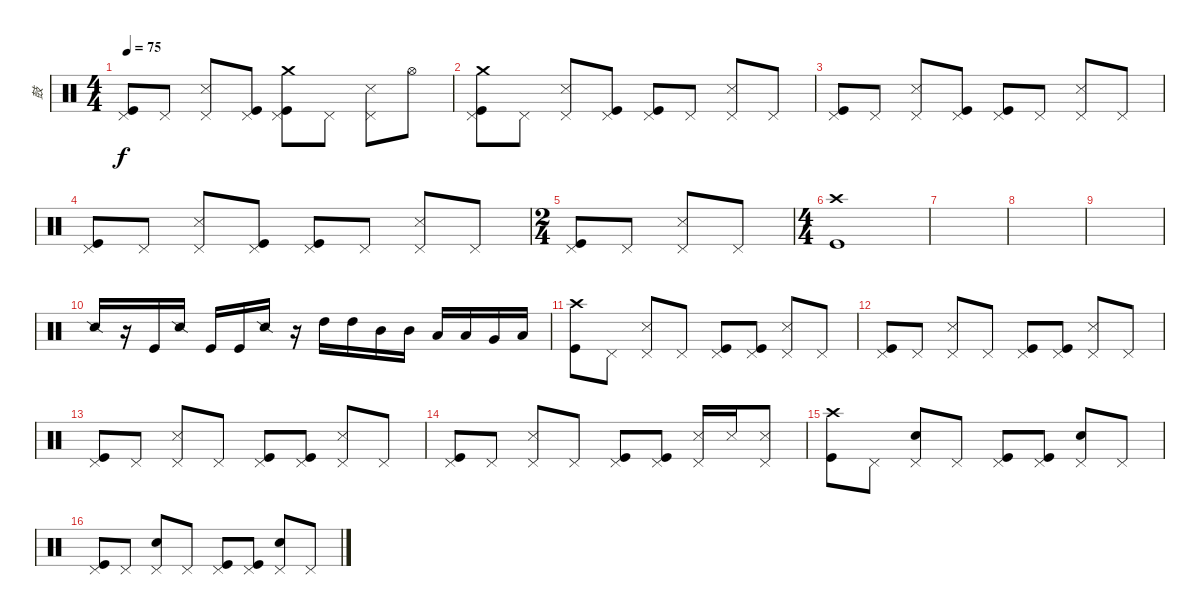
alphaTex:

\track ("鼓" "鼓") {instrument percussion}
\staff {score}
\articulation defaults
\ts (4 4)
\tempo 75
\clef neutral
\ks c
("Kick (hit)" "Pedal Hi-Hat (hit)").8{dy f} "Pedal Hi-Hat (hit)".8 ("Snare (side stick) 3" "Pedal Hi-Hat (hit)").8 ("Kick (hit)" "Pedal Hi-Hat (hit)").8 ("Kick (hit)" "Pedal Hi-Hat (hit)" "Crash medium (hit)").8 "Pedal Hi-Hat (hit)".8 ("Snare (side stick) 3" "Pedal Hi-Hat (hit)").8 "Hi-Hat (open)".8 |
("Kick (hit)" "Pedal Hi-Hat (hit)" "Crash medium (hit)").8 "Pedal Hi-Hat (hit)".8 ("Snare (side stick) 3" "Pedal Hi-Hat (hit)").8 ("Kick (hit)" "Pedal Hi-Hat (hit)").8 ("Kick (hit)" "Pedal Hi-Hat (hit)").8 "Pedal Hi-Hat (hit)".8 ("Snare (side stick) 3" "Pedal Hi-Hat (hit)").8 "Pedal Hi-Hat (hit)".8 |
("Kick (hit)" "Pedal Hi-Hat (hit)").8 "Pedal Hi-Hat (hit)".8 ("Snare (side stick) 3" "Pedal Hi-Hat (hit)").8 ("Kick (hit)" "Pedal Hi-Hat (hit)").8 ("Kick (hit)" "Pedal Hi-Hat (hit)").8 "Pedal Hi-Hat (hit)".8 ("Snare (side stick) 3" "Pedal Hi-Hat (hit)").8 "Pedal Hi-Hat (hit)".8 |
("Kick (hit)" "Pedal Hi-Hat (hit)").8 "Pedal Hi-Hat (hit)".8 ("Snare (side stick) 3" "Pedal Hi-Hat (hit)").8 ("Kick (hit)" "Pedal Hi-Hat (hit)").8 ("Kick (hit)" "Pedal Hi-Hat (hit)").8 "Pedal Hi-Hat (hit)".8 ("Snare (side stick) 3" "Pedal Hi-Hat (hit)").8 "Pedal Hi-Hat (hit)".8 |
\ts (2 4)
("Kick (hit)" "Pedal Hi-Hat (hit)").8 "Pedal Hi-Hat (hit)".8 ("Snare (side stick) 3" "Pedal Hi-Hat (hit)").8 "Pedal Hi-Hat (hit)".8 |
\ts (4 4)
("Kick (hit)" "Crash high (hit)").1 |
|
|
|
"Snare (side stick) 2".16 r.16 "Kick (hit)".16 "Snare (side stick) 2".16 "Kick (hit)".16 "Kick (hit)".16 "Snare (side stick) 2".16 r.16 "High Tom (hit)".16 "High Tom (hit)".16 "Mid Tom (hit)".16 "Mid Tom (hit)".16 "Low Tom (hit)".16 "Low Tom (hit)".16 "Very Low Tom (hit)".16 "Low Floor Tom (hit)".16 |
("Kick (hit)" "Crash high (hit)").8 "Pedal Hi-Hat (hit)".8 ("Snare (side stick) 3" "Pedal Hi-Hat (hit)").8 "Pedal Hi-Hat (hit)".8 ("Kick (hit)" "Pedal Hi-Hat (hit)").8 ("Kick (hit)" "Pedal Hi-Hat (hit)").8 ("Snare (side stick) 3" "Pedal Hi-Hat (hit)").8 "Pedal Hi-Hat (hit)".8 |
("Kick (hit)" "Pedal Hi-Hat (hit)").8 "Pedal Hi-Hat (hit)".8 ("Snare (side stick) 3" "Pedal Hi-Hat (hit)").8 "Pedal Hi-Hat (hit)".8 ("Kick (hit)" "Pedal Hi-Hat (hit)").8 ("Kick (hit)" "Pedal Hi-Hat (hit)").8 ("Snare (side stick) 3" "Pedal Hi-Hat (hit)").8 "Pedal Hi-Hat (hit)".8 |
("Kick (hit)" "Pedal Hi-Hat (hit)").8 "Pedal Hi-Hat (hit)".8 ("Snare (side stick) 3" "Pedal Hi-Hat (hit)").8 "Pedal Hi-Hat (hit)".8 ("Kick (hit)" "Pedal Hi-Hat (hit)").8 ("Kick (hit)" "Pedal Hi-Hat (hit)").8 ("Snare (side stick) 3" "Pedal Hi-Hat (hit)").8 "Pedal Hi-Hat (hit)".8 |
("Kick (hit)" "Pedal Hi-Hat (hit)").8 "Pedal Hi-Hat (hit)".8 ("Snare (side stick) 3" "Pedal Hi-Hat (hit)").8 "Pedal Hi-Hat (hit)".8 ("Kick (hit)" "Pedal Hi-Hat (hit)").8 ("Kick (hit)" "Pedal Hi-Hat (hit)").8 ("Snare (side stick) 3" "Pedal Hi-Hat (hit)").16 "Snare (side stick) 3".16 ("Snare (side stick) 3" "Pedal Hi-Hat (hit)").8 |
("Kick (hit)" "Crash high (hit)").8 "Pedal Hi-Hat (hit)".8 ("Snare (hit) 2" "Pedal Hi-Hat (hit)").8 "Pedal Hi-Hat (hit)".8 ("Kick (hit)" "Pedal Hi-Hat (hit)").8 ("Kick (hit)" "Pedal Hi-Hat (hit)").8 ("Snare (hit) 2" "Pedal Hi-Hat (hit)").8 "Pedal Hi-Hat (hit)".8 |
("Kick (hit)" "Pedal Hi-Hat (hit)").8 "Pedal Hi-Hat (hit)".8 ("Snare (hit) 2" "Pedal Hi-Hat (hit)").8 "Pedal Hi-Hat (hit)".8 ("Kick (hit)" "Pedal Hi-Hat (hit)").8 ("Kick (hit)" "Pedal Hi-Hat (hit)").8 ("Snare (hit) 2" "Pedal Hi-Hat (hit)").8 "Pedal Hi-Hat (hit)".8
